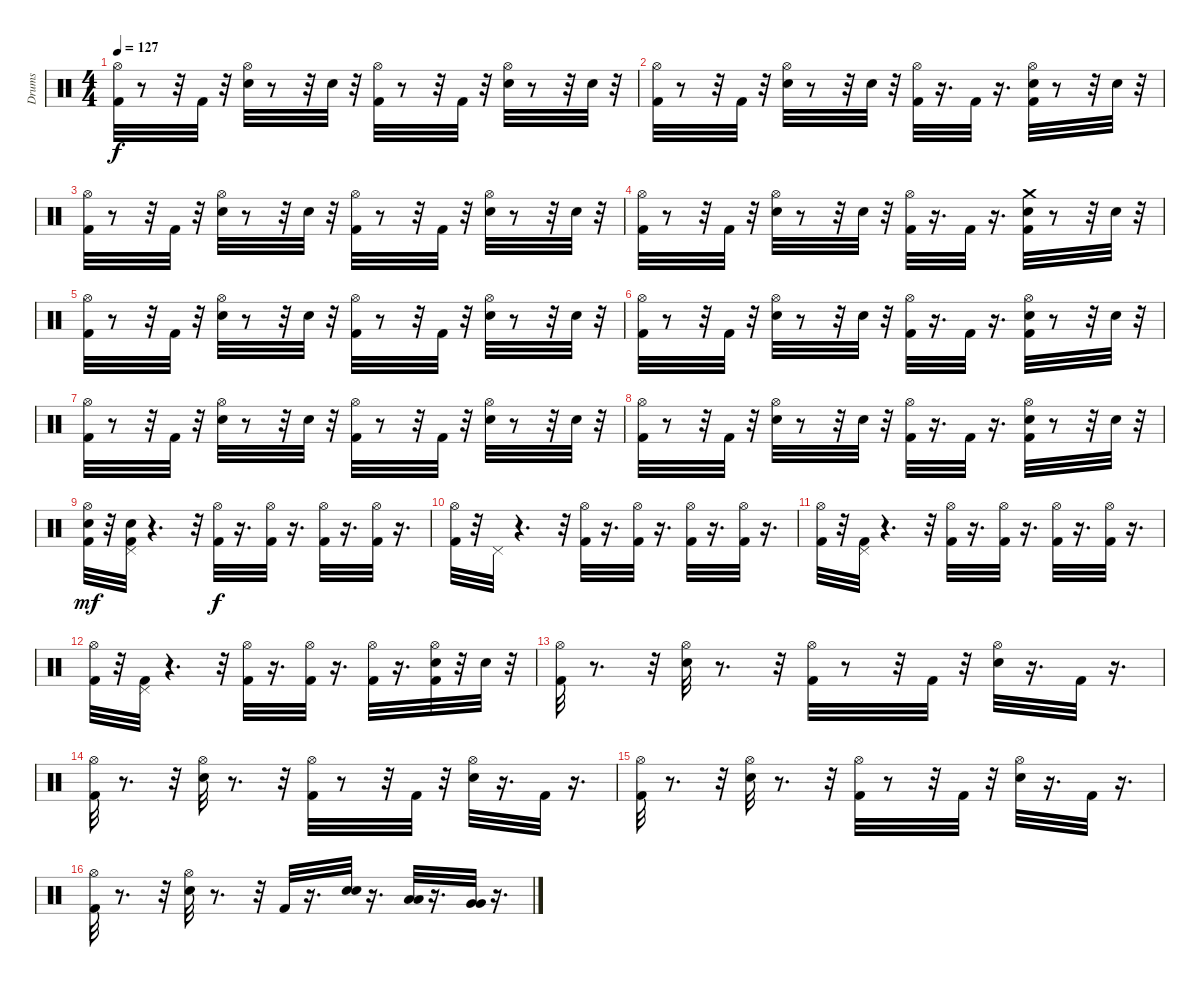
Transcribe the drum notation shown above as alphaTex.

\track ("Drums" "Drums") {instrument percussion}
\staff {score}
\articulation defaults
\ts (4 4)
\tempo 127
\clef neutral
\ks c
("Hi-Hat (open)" "Kick (hit) 2").32{dy f} r.8 r.32 "Kick (hit) 2".32 r.32 ("Hi-Hat (open)" "Snare (hit) 2").32 r.8 r.32 "Snare (hit) 2".32 r.32 ("Hi-Hat (open)" "Kick (hit) 2").32 r.8 r.32 "Kick (hit) 2".32 r.32 ("Hi-Hat (open)" "Snare (hit) 2").32 r.8 r.32 "Snare (hit) 2".32 r.32 |
("Kick (hit) 2" "Hi-Hat (open)").32 r.8 r.32 "Kick (hit) 2".32 r.32 ("Hi-Hat (open)" "Snare (hit) 2").32 r.8 r.32 "Snare (hit) 2".32 r.32 ("Hi-Hat (open)" "Kick (hit) 2").32 r.16{d} "Kick (hit) 2".32 r.16{d} ("Hi-Hat (open)" "Snare (hit) 2" "Kick (hit) 2").32 r.8 r.32 "Snare (hit) 2".32 r.32 |
("Kick (hit) 2" "Hi-Hat (open)").32 r.8 r.32 "Kick (hit) 2".32 r.32 ("Hi-Hat (open)" "Snare (hit) 2").32 r.8 r.32 "Snare (hit) 2".32 r.32 ("Hi-Hat (open)" "Kick (hit) 2").32 r.8 r.32 "Kick (hit) 2".32 r.32 ("Hi-Hat (open)" "Snare (hit) 2").32 r.8 r.32 "Snare (hit) 2".32 r.32 |
("Hi-Hat (open)" "Kick (hit) 2").32 r.8 r.32 "Kick (hit) 2".32 r.32 ("Hi-Hat (open)" "Snare (hit) 2").32 r.8 r.32 "Snare (hit) 2".32 r.32 ("Hi-Hat (open)" "Kick (hit) 2").32 r.16{d} "Kick (hit) 2".32 r.16{d} ("Snare (hit) 2" "Kick (hit) 2" "Crash medium (hit)").32 r.8 r.32 "Snare (hit) 2".32 r.32 |
("Kick (hit) 2" "Hi-Hat (open)").32 r.8 r.32 "Kick (hit) 2".32 r.32 ("Hi-Hat (open)" "Snare (hit) 2").32 r.8 r.32 "Snare (hit) 2".32 r.32 ("Hi-Hat (open)" "Kick (hit) 2").32 r.8 r.32 "Kick (hit) 2".32 r.32 ("Hi-Hat (open)" "Snare (hit) 2").32 r.8 r.32 "Snare (hit) 2".32 r.32 |
("Kick (hit) 2" "Hi-Hat (open)").32 r.8 r.32 "Kick (hit) 2".32 r.32 ("Hi-Hat (open)" "Snare (hit) 2").32 r.8 r.32 "Snare (hit) 2".32 r.32 ("Hi-Hat (open)" "Kick (hit) 2").32 r.16{d} "Kick (hit) 2".32 r.16{d} ("Hi-Hat (open)" "Snare (hit) 2" "Kick (hit) 2").32 r.8 r.32 "Snare (hit) 2".32 r.32 |
("Kick (hit) 2" "Hi-Hat (open)").32 r.8 r.32 "Kick (hit) 2".32 r.32 ("Hi-Hat (open)" "Snare (hit) 2").32 r.8 r.32 "Snare (hit) 2".32 r.32 ("Hi-Hat (open)" "Kick (hit) 2").32 r.8 r.32 "Kick (hit) 2".32 r.32 ("Hi-Hat (open)" "Snare (hit) 2").32 r.8 r.32 "Snare (hit) 2".32 r.32 |
("Kick (hit) 2" "Hi-Hat (open)").32 r.8 r.32 "Kick (hit) 2".32 r.32 ("Hi-Hat (open)" "Snare (hit) 2").32 r.8 r.32 "Snare (hit) 2".32 r.32 ("Hi-Hat (open)" "Kick (hit) 2").32 r.16{d} "Kick (hit) 2".32 r.16{d} ("Hi-Hat (open)" "Snare (hit) 2" "Kick (hit) 2").32 r.8 r.32 "Snare (hit) 2".32 r.32 |
("Kick (hit) 2" "Hi-Hat (open)" "Snare (hit) 2").32{dy mf} r.32 ("Kick (hit) 2" "Snare (hit) 2" "Pedal Hi-Hat (hit)").32 r.4{d} r.32 ("Hi-Hat (open)" "Kick (hit) 2").32{dy f} r.16{d} ("Hi-Hat (open)" "Kick (hit) 2").32 r.16{d} ("Hi-Hat (open)" "Kick (hit) 2").32 r.16{d} ("Hi-Hat (open)" "Kick (hit) 2").32 r.16{d} |
("Hi-Hat (open)" "Kick (hit) 2").32 r.32 "Pedal Hi-Hat (hit)".32 r.4{d} r.32 ("Hi-Hat (open)" "Kick (hit) 2").32 r.16{d} ("Hi-Hat (open)" "Kick (hit) 2").32 r.16{d} ("Hi-Hat (open)" "Kick (hit) 2").32 r.16{d} ("Hi-Hat (open)" "Kick (hit) 2").32 r.16{d} |
("Hi-Hat (open)" "Kick (hit) 2").32 r.32 ("Pedal Hi-Hat (hit)" "Kick (hit) 2").32 r.4{d} r.32 ("Kick (hit) 2" "Hi-Hat (open)").32 r.16{d} ("Hi-Hat (open)" "Kick (hit) 2").32 r.16{d} ("Hi-Hat (open)" "Kick (hit) 2").32 r.16{d} ("Hi-Hat (open)" "Kick (hit) 2").32 r.16{d} |
("Hi-Hat (open)" "Kick (hit) 2").32 r.32 ("Pedal Hi-Hat (hit)" "Kick (hit) 2").32 r.4{d} r.32 ("Kick (hit) 2" "Hi-Hat (open)").32 r.16{d} ("Hi-Hat (open)" "Kick (hit) 2").32 r.16{d} ("Hi-Hat (open)" "Kick (hit) 2").32 r.16{d} ("Hi-Hat (open)" "Kick (hit) 2" "Snare (hit) 2").32 r.32 "Snare (hit) 2".32 r.32 |
("Hi-Hat (open)" "Kick (hit) 2").32 r.8{d} r.32 ("Hi-Hat (open)" "Snare (hit) 2").32 r.8{d} r.32 ("Hi-Hat (open)" "Kick (hit) 2").32 r.8 r.32 "Kick (hit) 2".32 r.32 ("Hi-Hat (open)" "Snare (hit) 2").32 r.16{d} "Kick (hit) 2".32 r.16{d} |
("Hi-Hat (open)" "Kick (hit) 2").32 r.8{d} r.32 ("Hi-Hat (open)" "Snare (hit) 2").32 r.8{d} r.32 ("Hi-Hat (open)" "Kick (hit) 2").32 r.8 r.32 "Kick (hit) 2".32 r.32 ("Hi-Hat (open)" "Snare (hit) 2").32 r.16{d} "Kick (hit) 2".32 r.16{d} |
("Kick (hit) 2" "Hi-Hat (open)").32 r.8{d} r.32 ("Hi-Hat (open)" "Snare (hit) 2").32 r.8{d} r.32 ("Hi-Hat (open)" "Kick (hit) 2").32 r.8 r.32 "Kick (hit) 2".32 r.32 ("Hi-Hat (open)" "Snare (hit) 2").32 r.16{d} "Kick (hit) 2".32 r.16{d} |
("Hi-Hat (open)" "Kick (hit) 2").32 r.8{d} r.32 ("Hi-Hat (open)" "Snare (hit) 2").32 r.8{d} r.32 "Kick (hit) 2".32 r.16{d} ("Snare (hit) 2" "Snare (hit) 2").32 r.16{d} ("Low Tom (hit)" "Low Tom (hit)").32 r.16{d} ("Very Low Tom (hit)" "Very Low Tom (hit)").32 r.16{d}
